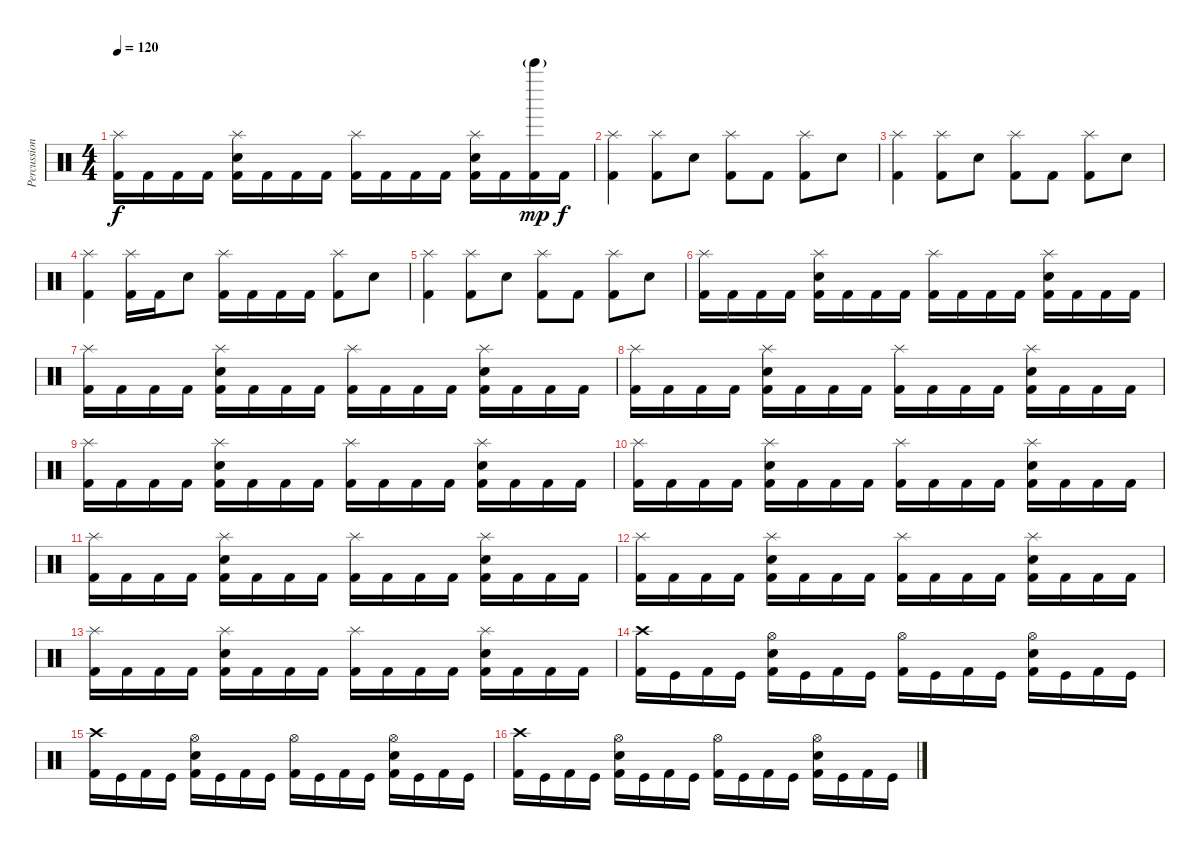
\track ("Percussion" "Percussion") {instrument percussion}
\staff {score}
\articulation defaults
\ts (4 4)
\tempo 120
\clef neutral
\ks c
("Splash (hit)" "Kick (hit) 2").16{dy f} "Kick (hit) 2".16 "Kick (hit) 2".16 "Kick (hit) 2".16 ("Splash (hit)" "Electric Snare (hit)" "Kick (hit) 2").16 "Kick (hit) 2".16 "Kick (hit) 2".16 "Kick (hit) 2".16 ("Splash (hit)" "Kick (hit) 2").16 "Kick (hit) 2".16 "Kick (hit) 2".16 "Kick (hit) 2".16 ("Splash (hit)" "Electric Snare (hit)" "Kick (hit) 2").16 "Kick (hit) 2".16 ("Bell Tree (hit)"{g} "Kick (hit) 2").16{dy mp} "Kick (hit) 2".16{dy f} |
("Splash (hit)" "Kick (hit) 2").4 ("Splash (hit)" "Kick (hit) 2").8 "Electric Snare (hit)".8 ("Splash (hit)" "Kick (hit) 2").8 "Kick (hit) 2".8 ("Splash (hit)" "Kick (hit) 2").8 "Electric Snare (hit)".8 |
("Splash (hit)" "Kick (hit) 2").4 ("Splash (hit)" "Kick (hit) 2").8 "Electric Snare (hit)".8 ("Splash (hit)" "Kick (hit) 2").8 "Kick (hit) 2".8 ("Splash (hit)" "Kick (hit) 2").8 "Electric Snare (hit)".8 |
("Splash (hit)" "Kick (hit) 2").4 ("Splash (hit)" "Kick (hit) 2").16 "Kick (hit) 2".16 "Electric Snare (hit)".8 ("Splash (hit)" "Kick (hit) 2").16 "Kick (hit) 2".16 "Kick (hit) 2".16 "Kick (hit) 2".16 ("Splash (hit)" "Kick (hit) 2").8 "Electric Snare (hit)".8 |
("Splash (hit)" "Kick (hit) 2").4 ("Splash (hit)" "Kick (hit) 2").8 "Electric Snare (hit)".8 ("Splash (hit)" "Kick (hit) 2").8 "Kick (hit) 2".8 ("Splash (hit)" "Kick (hit) 2").8 "Electric Snare (hit)".8 |
("Splash (hit)" "Kick (hit) 2").16 "Kick (hit) 2".16 "Kick (hit) 2".16 "Kick (hit) 2".16 ("Splash (hit)" "Electric Snare (hit)" "Kick (hit) 2").16 "Kick (hit) 2".16 "Kick (hit) 2".16 "Kick (hit) 2".16 ("Splash (hit)" "Kick (hit) 2").16 "Kick (hit) 2".16 "Kick (hit) 2".16 "Kick (hit) 2".16 ("Splash (hit)" "Electric Snare (hit)" "Kick (hit) 2").16 "Kick (hit) 2".16 "Kick (hit) 2".16 "Kick (hit) 2".16 |
("Splash (hit)" "Kick (hit) 2").16 "Kick (hit) 2".16 "Kick (hit) 2".16 "Kick (hit) 2".16 ("Splash (hit)" "Electric Snare (hit)" "Kick (hit) 2").16 "Kick (hit) 2".16 "Kick (hit) 2".16 "Kick (hit) 2".16 ("Splash (hit)" "Kick (hit) 2").16 "Kick (hit) 2".16 "Kick (hit) 2".16 "Kick (hit) 2".16 ("Splash (hit)" "Electric Snare (hit)" "Kick (hit) 2").16 "Kick (hit) 2".16 "Kick (hit) 2".16 "Kick (hit) 2".16 |
("Splash (hit)" "Kick (hit) 2").16 "Kick (hit) 2".16 "Kick (hit) 2".16 "Kick (hit) 2".16 ("Splash (hit)" "Electric Snare (hit)" "Kick (hit) 2").16 "Kick (hit) 2".16 "Kick (hit) 2".16 "Kick (hit) 2".16 ("Splash (hit)" "Kick (hit) 2").16 "Kick (hit) 2".16 "Kick (hit) 2".16 "Kick (hit) 2".16 ("Splash (hit)" "Electric Snare (hit)" "Kick (hit) 2").16 "Kick (hit) 2".16 "Kick (hit) 2".16 "Kick (hit) 2".16 |
("Splash (hit)" "Kick (hit) 2").16 "Kick (hit) 2".16 "Kick (hit) 2".16 "Kick (hit) 2".16 ("Splash (hit)" "Electric Snare (hit)" "Kick (hit) 2").16 "Kick (hit) 2".16 "Kick (hit) 2".16 "Kick (hit) 2".16 ("Splash (hit)" "Kick (hit) 2").16 "Kick (hit) 2".16 "Kick (hit) 2".16 "Kick (hit) 2".16 ("Splash (hit)" "Electric Snare (hit)" "Kick (hit) 2").16 "Kick (hit) 2".16 "Kick (hit) 2".16 "Kick (hit) 2".16 |
("Splash (hit)" "Kick (hit) 2").16 "Kick (hit) 2".16 "Kick (hit) 2".16 "Kick (hit) 2".16 ("Splash (hit)" "Electric Snare (hit)" "Kick (hit) 2").16 "Kick (hit) 2".16 "Kick (hit) 2".16 "Kick (hit) 2".16 ("Splash (hit)" "Kick (hit) 2").16 "Kick (hit) 2".16 "Kick (hit) 2".16 "Kick (hit) 2".16 ("Splash (hit)" "Electric Snare (hit)" "Kick (hit) 2").16 "Kick (hit) 2".16 "Kick (hit) 2".16 "Kick (hit) 2".16 |
("Splash (hit)" "Kick (hit) 2").16 "Kick (hit) 2".16 "Kick (hit) 2".16 "Kick (hit) 2".16 ("Splash (hit)" "Electric Snare (hit)" "Kick (hit) 2").16 "Kick (hit) 2".16 "Kick (hit) 2".16 "Kick (hit) 2".16 ("Splash (hit)" "Kick (hit) 2").16 "Kick (hit) 2".16 "Kick (hit) 2".16 "Kick (hit) 2".16 ("Splash (hit)" "Electric Snare (hit)" "Kick (hit) 2").16 "Kick (hit) 2".16 "Kick (hit) 2".16 "Kick (hit) 2".16 |
("Splash (hit)" "Kick (hit) 2").16 "Kick (hit) 2".16 "Kick (hit) 2".16 "Kick (hit) 2".16 ("Splash (hit)" "Electric Snare (hit)" "Kick (hit) 2").16 "Kick (hit) 2".16 "Kick (hit) 2".16 "Kick (hit) 2".16 ("Splash (hit)" "Kick (hit) 2").16 "Kick (hit) 2".16 "Kick (hit) 2".16 "Kick (hit) 2".16 ("Splash (hit)" "Electric Snare (hit)" "Kick (hit) 2").16 "Kick (hit) 2".16 "Kick (hit) 2".16 "Kick (hit) 2".16 |
("Splash (hit)" "Kick (hit) 2").16 "Kick (hit) 2".16 "Kick (hit) 2".16 "Kick (hit) 2".16 ("Splash (hit)" "Electric Snare (hit)" "Kick (hit) 2").16 "Kick (hit) 2".16 "Kick (hit) 2".16 "Kick (hit) 2".16 ("Splash (hit)" "Kick (hit) 2").16 "Kick (hit) 2".16 "Kick (hit) 2".16 "Kick (hit) 2".16 ("Splash (hit)" "Electric Snare (hit)" "Kick (hit) 2").16 "Kick (hit) 2".16 "Kick (hit) 2".16 "Kick (hit) 2".16 |
("Crash high (hit)" "Kick (hit) 2").16 "Kick (hit)".16 "Kick (hit) 2".16 "Kick (hit)".16 ("Hi-Hat (open)" "Electric Snare (hit)" "Kick (hit) 2").16 "Kick (hit)".16 "Kick (hit) 2".16 "Kick (hit)".16 ("Hi-Hat (open)" "Kick (hit) 2").16 "Kick (hit)".16 "Kick (hit) 2".16 "Kick (hit)".16 ("Hi-Hat (open)" "Electric Snare (hit)" "Kick (hit) 2").16 "Kick (hit)".16 "Kick (hit) 2".16 "Kick (hit)".16 |
("Crash high (hit)" "Kick (hit) 2").16 "Kick (hit)".16 "Kick (hit) 2".16 "Kick (hit)".16 ("Hi-Hat (open)" "Electric Snare (hit)" "Kick (hit) 2").16 "Kick (hit)".16 "Kick (hit) 2".16 "Kick (hit)".16 ("Hi-Hat (open)" "Kick (hit) 2").16 "Kick (hit)".16 "Kick (hit) 2".16 "Kick (hit)".16 ("Hi-Hat (open)" "Electric Snare (hit)" "Kick (hit) 2").16 "Kick (hit)".16 "Kick (hit) 2".16 "Kick (hit)".16 |
("Crash high (hit)" "Kick (hit) 2").16 "Kick (hit)".16 "Kick (hit) 2".16 "Kick (hit)".16 ("Hi-Hat (open)" "Electric Snare (hit)" "Kick (hit) 2").16 "Kick (hit)".16 "Kick (hit) 2".16 "Kick (hit)".16 ("Hi-Hat (open)" "Kick (hit) 2").16 "Kick (hit)".16 "Kick (hit) 2".16 "Kick (hit)".16 ("Hi-Hat (open)" "Electric Snare (hit)" "Kick (hit) 2").16 "Kick (hit)".16 "Kick (hit) 2".16 "Kick (hit)".16
